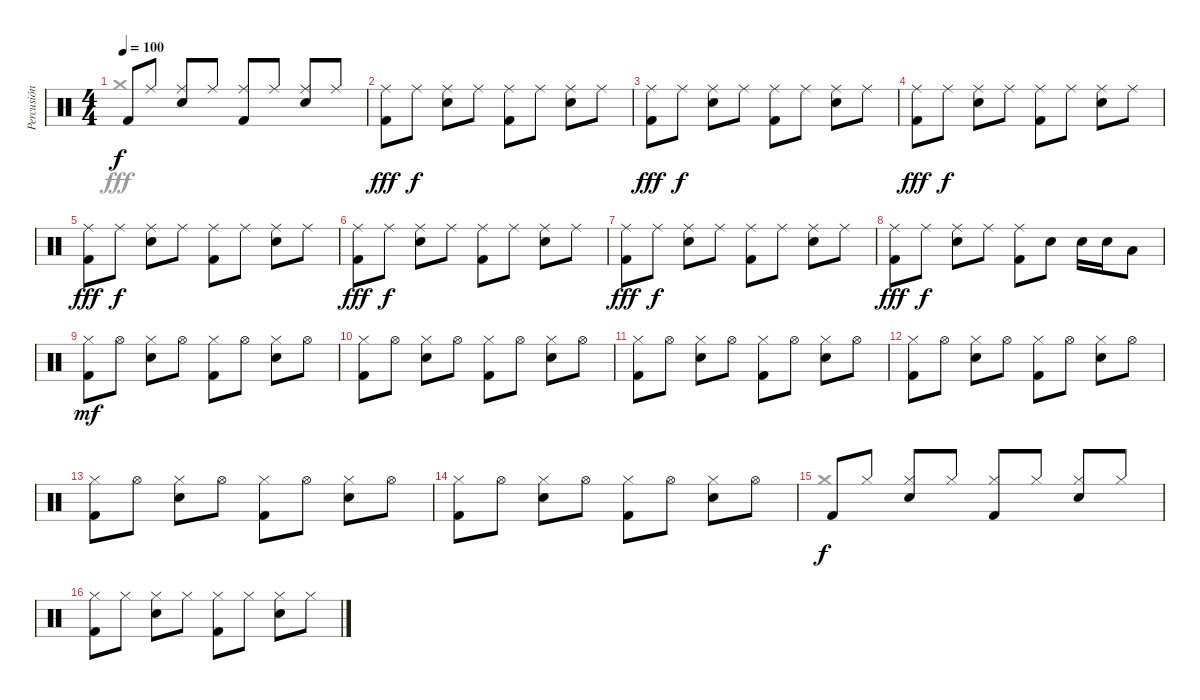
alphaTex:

\track ("Percusión" "Percusión") {instrument percussion}
\staff {score}
\articulation defaults
\voice
\ts (4 4)
\tempo 100
\clef neutral
\ks c "Kick (hit) 2".8{dy f} "Ride (middle)".8
("Ride (middle)" "Electric Snare (hit)").8 "Ride (middle)".8 ("Ride (middle)" "Kick (hit) 2").8 "Ride (middle)".8 ("Ride (middle)" "Electric Snare (hit)").8 "Ride (middle)".8 |
("Ride (middle)" "Kick (hit) 2").8{dy fff} "Ride (middle)".8{dy f} ("Ride (middle)" "Electric Snare (hit)").8 "Ride (middle)".8 ("Ride (middle)" "Kick (hit) 2").8 "Ride (middle)".8 ("Ride (middle)" "Electric Snare (hit)").8 "Ride (middle)".8 |
("Ride (middle)" "Kick (hit) 2").8{dy fff} "Ride (middle)".8{dy f} ("Ride (middle)" "Electric Snare (hit)").8 "Ride (middle)".8 ("Ride (middle)" "Kick (hit) 2").8 "Ride (middle)".8 ("Ride (middle)" "Electric Snare (hit)").8 "Ride (middle)".8 |
("Ride (middle)" "Kick (hit) 2").8{dy fff} "Ride (middle)".8{dy f} ("Ride (middle)" "Electric Snare (hit)").8 "Ride (middle)".8 ("Ride (middle)" "Kick (hit) 2").8 "Ride (middle)".8 ("Ride (middle)" "Electric Snare (hit)").8 "Ride (middle)".8 |
("Ride (middle)" "Kick (hit) 2").8{dy fff} "Ride (middle)".8{dy f} ("Ride (middle)" "Electric Snare (hit)").8 "Ride (middle)".8 ("Ride (middle)" "Kick (hit) 2").8 "Ride (middle)".8 ("Ride (middle)" "Electric Snare (hit)").8 "Ride (middle)".8 |
("Ride (middle)" "Kick (hit) 2").8{dy fff} "Ride (middle)".8{dy f} ("Ride (middle)" "Electric Snare (hit)").8 "Ride (middle)".8 ("Ride (middle)" "Kick (hit) 2").8 "Ride (middle)".8 ("Ride (middle)" "Electric Snare (hit)").8 "Ride (middle)".8 |
("Ride (middle)" "Kick (hit) 2").8{dy fff} "Ride (middle)".8{dy f} ("Ride (middle)" "Electric Snare (hit)").8 "Ride (middle)".8 ("Ride (middle)" "Kick (hit) 2").8 "Ride (middle)".8 ("Ride (middle)" "Electric Snare (hit)").8 "Ride (middle)".8 |
("Ride (middle)" "Kick (hit) 2").8{dy fff} "Ride (middle)".8{dy f} ("Ride (middle)" "Electric Snare (hit)").8 "Ride (middle)".8 ("Ride (middle)" "Kick (hit) 2").8 "Electric Snare (hit)".8 "Electric Snare (hit)".16 "Electric Snare (hit)".16 "Low Tom (hit)".8 |
("Hi-Hat (closed)" "Kick (hit) 2").8{dy mf} "Hi-Hat (open)".8 ("Hi-Hat (closed)" "Electric Snare (hit)").8 "Hi-Hat (open)".8 ("Hi-Hat (closed)" "Kick (hit) 2").8 "Hi-Hat (open)".8 ("Hi-Hat (closed)" "Electric Snare (hit)").8 "Hi-Hat (open)".8 |
("Hi-Hat (closed)" "Kick (hit) 2").8 "Hi-Hat (open)".8 ("Hi-Hat (closed)" "Electric Snare (hit)").8 "Hi-Hat (open)".8 ("Hi-Hat (closed)" "Kick (hit) 2").8 "Hi-Hat (open)".8 ("Hi-Hat (closed)" "Electric Snare (hit)").8 "Hi-Hat (open)".8 |
("Hi-Hat (closed)" "Kick (hit) 2").8 "Hi-Hat (open)".8 ("Hi-Hat (closed)" "Electric Snare (hit)").8 "Hi-Hat (open)".8 ("Hi-Hat (closed)" "Kick (hit) 2").8 "Hi-Hat (open)".8 ("Hi-Hat (closed)" "Electric Snare (hit)").8 "Hi-Hat (open)".8 |
("Hi-Hat (closed)" "Kick (hit) 2").8 "Hi-Hat (open)".8 ("Hi-Hat (closed)" "Electric Snare (hit)").8 "Hi-Hat (open)".8 ("Hi-Hat (closed)" "Kick (hit) 2").8 "Hi-Hat (open)".8 ("Hi-Hat (closed)" "Electric Snare (hit)").8 "Hi-Hat (open)".8 |
("Hi-Hat (closed)" "Kick (hit) 2").8 "Hi-Hat (open)".8 ("Hi-Hat (closed)" "Electric Snare (hit)").8 "Hi-Hat (open)".8 ("Hi-Hat (closed)" "Kick (hit) 2").8 "Hi-Hat (open)".8 ("Hi-Hat (closed)" "Electric Snare (hit)").8 "Hi-Hat (open)".8 |
("Hi-Hat (closed)" "Kick (hit) 2").8 "Hi-Hat (open)".8 ("Hi-Hat (closed)" "Electric Snare (hit)").8 "Hi-Hat (open)".8 ("Hi-Hat (closed)" "Kick (hit) 2").8 "Hi-Hat (open)".8 ("Hi-Hat (closed)" "Electric Snare (hit)").8 "Hi-Hat (open)".8 |
"Kick (hit) 2".8{dy f} "Hi-Hat (closed)".8 ("Hi-Hat (closed)" "Electric Snare (hit)").8 "Hi-Hat (closed)".8 ("Hi-Hat (closed)" "Kick (hit) 2").8 "Hi-Hat (closed)".8 ("Hi-Hat (closed)" "Electric Snare (hit)").8 "Hi-Hat (closed)".8 |
("Hi-Hat (closed)" "Kick (hit) 2").8 "Hi-Hat (closed)".8 ("Hi-Hat (closed)" "Electric Snare (hit)").8 "Hi-Hat (closed)".8 ("Hi-Hat (closed)" "Kick (hit) 2").8 "Hi-Hat (closed)".8 ("Hi-Hat (closed)" "Electric Snare (hit)").8 "Hi-Hat (closed)".8
\voice
\clef neutral
\ottava regular
\simile none
\ks c "Crash medium (hit)".1{dy fff}
|
|
|
|
|
|
|
|
|
|
|
|
|
|
"Crash medium (hit)".1 |
